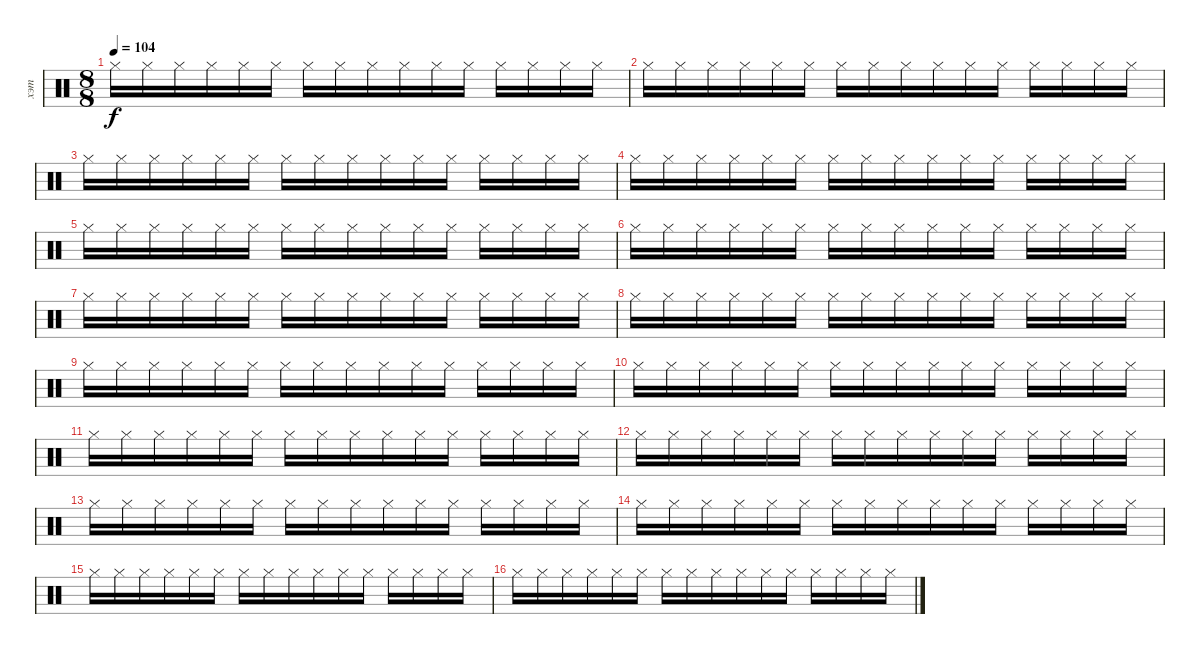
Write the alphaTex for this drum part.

\track ("хэт" "хэт") {instrument percussion}
\staff {score}
\articulation defaults
\ts (8 8)
\tempo 104
\clef neutral
\ks c "Hi-Hat (closed)".16{dy f} "Hi-Hat (closed)".16 "Hi-Hat (closed)".16 "Hi-Hat (closed)".16 "Hi-Hat (closed)".16 "Hi-Hat (closed)".16 "Hi-Hat (closed)".16 "Hi-Hat (closed)".16 "Hi-Hat (closed)".16 "Hi-Hat (closed)".16 "Hi-Hat (closed)".16 "Hi-Hat (closed)".16 "Hi-Hat (closed)".16 "Hi-Hat (closed)".16 "Hi-Hat (closed)".16 "Hi-Hat (closed)".16
|
"Hi-Hat (closed)".16 "Hi-Hat (closed)".16 "Hi-Hat (closed)".16 "Hi-Hat (closed)".16 "Hi-Hat (closed)".16 "Hi-Hat (closed)".16 "Hi-Hat (closed)".16 "Hi-Hat (closed)".16 "Hi-Hat (closed)".16 "Hi-Hat (closed)".16 "Hi-Hat (closed)".16 "Hi-Hat (closed)".16 "Hi-Hat (closed)".16 "Hi-Hat (closed)".16 "Hi-Hat (closed)".16 "Hi-Hat (closed)".16 |
"Hi-Hat (closed)".16 "Hi-Hat (closed)".16 "Hi-Hat (closed)".16 "Hi-Hat (closed)".16 "Hi-Hat (closed)".16 "Hi-Hat (closed)".16 "Hi-Hat (closed)".16 "Hi-Hat (closed)".16 "Hi-Hat (closed)".16 "Hi-Hat (closed)".16 "Hi-Hat (closed)".16 "Hi-Hat (closed)".16 "Hi-Hat (closed)".16 "Hi-Hat (closed)".16 "Hi-Hat (closed)".16 "Hi-Hat (closed)".16 |
"Hi-Hat (closed)".16 "Hi-Hat (closed)".16 "Hi-Hat (closed)".16 "Hi-Hat (closed)".16 "Hi-Hat (closed)".16 "Hi-Hat (closed)".16 "Hi-Hat (closed)".16 "Hi-Hat (closed)".16 "Hi-Hat (closed)".16 "Hi-Hat (closed)".16 "Hi-Hat (closed)".16 "Hi-Hat (closed)".16 "Hi-Hat (closed)".16 "Hi-Hat (closed)".16 "Hi-Hat (closed)".16 "Hi-Hat (closed)".16 |
"Hi-Hat (closed)".16 "Hi-Hat (closed)".16 "Hi-Hat (closed)".16 "Hi-Hat (closed)".16 "Hi-Hat (closed)".16 "Hi-Hat (closed)".16 "Hi-Hat (closed)".16 "Hi-Hat (closed)".16 "Hi-Hat (closed)".16 "Hi-Hat (closed)".16 "Hi-Hat (closed)".16 "Hi-Hat (closed)".16 "Hi-Hat (closed)".16 "Hi-Hat (closed)".16 "Hi-Hat (closed)".16 "Hi-Hat (closed)".16 |
"Hi-Hat (closed)".16 "Hi-Hat (closed)".16 "Hi-Hat (closed)".16 "Hi-Hat (closed)".16 "Hi-Hat (closed)".16 "Hi-Hat (closed)".16 "Hi-Hat (closed)".16 "Hi-Hat (closed)".16 "Hi-Hat (closed)".16 "Hi-Hat (closed)".16 "Hi-Hat (closed)".16 "Hi-Hat (closed)".16 "Hi-Hat (closed)".16 "Hi-Hat (closed)".16 "Hi-Hat (closed)".16 "Hi-Hat (closed)".16 |
"Hi-Hat (closed)".16 "Hi-Hat (closed)".16 "Hi-Hat (closed)".16 "Hi-Hat (closed)".16 "Hi-Hat (closed)".16 "Hi-Hat (closed)".16 "Hi-Hat (closed)".16 "Hi-Hat (closed)".16 "Hi-Hat (closed)".16 "Hi-Hat (closed)".16 "Hi-Hat (closed)".16 "Hi-Hat (closed)".16 "Hi-Hat (closed)".16 "Hi-Hat (closed)".16 "Hi-Hat (closed)".16 "Hi-Hat (closed)".16 |
"Hi-Hat (closed)".16 "Hi-Hat (closed)".16 "Hi-Hat (closed)".16 "Hi-Hat (closed)".16 "Hi-Hat (closed)".16 "Hi-Hat (closed)".16 "Hi-Hat (closed)".16 "Hi-Hat (closed)".16 "Hi-Hat (closed)".16 "Hi-Hat (closed)".16 "Hi-Hat (closed)".16 "Hi-Hat (closed)".16 "Hi-Hat (closed)".16 "Hi-Hat (closed)".16 "Hi-Hat (closed)".16 "Hi-Hat (closed)".16 |
"Hi-Hat (closed)".16 "Hi-Hat (closed)".16 "Hi-Hat (closed)".16 "Hi-Hat (closed)".16 "Hi-Hat (closed)".16 "Hi-Hat (closed)".16 "Hi-Hat (closed)".16 "Hi-Hat (closed)".16 "Hi-Hat (closed)".16 "Hi-Hat (closed)".16 "Hi-Hat (closed)".16 "Hi-Hat (closed)".16 "Hi-Hat (closed)".16 "Hi-Hat (closed)".16 "Hi-Hat (closed)".16 "Hi-Hat (closed)".16 |
"Hi-Hat (closed)".16 "Hi-Hat (closed)".16 "Hi-Hat (closed)".16 "Hi-Hat (closed)".16 "Hi-Hat (closed)".16 "Hi-Hat (closed)".16 "Hi-Hat (closed)".16 "Hi-Hat (closed)".16 "Hi-Hat (closed)".16 "Hi-Hat (closed)".16 "Hi-Hat (closed)".16 "Hi-Hat (closed)".16 "Hi-Hat (closed)".16 "Hi-Hat (closed)".16 "Hi-Hat (closed)".16 "Hi-Hat (closed)".16 |
"Hi-Hat (closed)".16 "Hi-Hat (closed)".16 "Hi-Hat (closed)".16 "Hi-Hat (closed)".16 "Hi-Hat (closed)".16 "Hi-Hat (closed)".16 "Hi-Hat (closed)".16 "Hi-Hat (closed)".16 "Hi-Hat (closed)".16 "Hi-Hat (closed)".16 "Hi-Hat (closed)".16 "Hi-Hat (closed)".16 "Hi-Hat (closed)".16 "Hi-Hat (closed)".16 "Hi-Hat (closed)".16 "Hi-Hat (closed)".16 |
"Hi-Hat (closed)".16 "Hi-Hat (closed)".16 "Hi-Hat (closed)".16 "Hi-Hat (closed)".16 "Hi-Hat (closed)".16 "Hi-Hat (closed)".16 "Hi-Hat (closed)".16 "Hi-Hat (closed)".16 "Hi-Hat (closed)".16 "Hi-Hat (closed)".16 "Hi-Hat (closed)".16 "Hi-Hat (closed)".16 "Hi-Hat (closed)".16 "Hi-Hat (closed)".16 "Hi-Hat (closed)".16 "Hi-Hat (closed)".16 |
"Hi-Hat (closed)".16 "Hi-Hat (closed)".16 "Hi-Hat (closed)".16 "Hi-Hat (closed)".16 "Hi-Hat (closed)".16 "Hi-Hat (closed)".16 "Hi-Hat (closed)".16 "Hi-Hat (closed)".16 "Hi-Hat (closed)".16 "Hi-Hat (closed)".16 "Hi-Hat (closed)".16 "Hi-Hat (closed)".16 "Hi-Hat (closed)".16 "Hi-Hat (closed)".16 "Hi-Hat (closed)".16 "Hi-Hat (closed)".16 |
"Hi-Hat (closed)".16 "Hi-Hat (closed)".16 "Hi-Hat (closed)".16 "Hi-Hat (closed)".16 "Hi-Hat (closed)".16 "Hi-Hat (closed)".16 "Hi-Hat (closed)".16 "Hi-Hat (closed)".16 "Hi-Hat (closed)".16 "Hi-Hat (closed)".16 "Hi-Hat (closed)".16 "Hi-Hat (closed)".16 "Hi-Hat (closed)".16 "Hi-Hat (closed)".16 "Hi-Hat (closed)".16 "Hi-Hat (closed)".16 |
"Hi-Hat (closed)".16 "Hi-Hat (closed)".16 "Hi-Hat (closed)".16 "Hi-Hat (closed)".16 "Hi-Hat (closed)".16 "Hi-Hat (closed)".16 "Hi-Hat (closed)".16 "Hi-Hat (closed)".16 "Hi-Hat (closed)".16 "Hi-Hat (closed)".16 "Hi-Hat (closed)".16 "Hi-Hat (closed)".16 "Hi-Hat (closed)".16 "Hi-Hat (closed)".16 "Hi-Hat (closed)".16 "Hi-Hat (closed)".16 |
"Hi-Hat (closed)".16 "Hi-Hat (closed)".16 "Hi-Hat (closed)".16 "Hi-Hat (closed)".16 "Hi-Hat (closed)".16 "Hi-Hat (closed)".16 "Hi-Hat (closed)".16 "Hi-Hat (closed)".16 "Hi-Hat (closed)".16 "Hi-Hat (closed)".16 "Hi-Hat (closed)".16 "Hi-Hat (closed)".16 "Hi-Hat (closed)".16 "Hi-Hat (closed)".16 "Hi-Hat (closed)".16 "Hi-Hat (closed)".16
